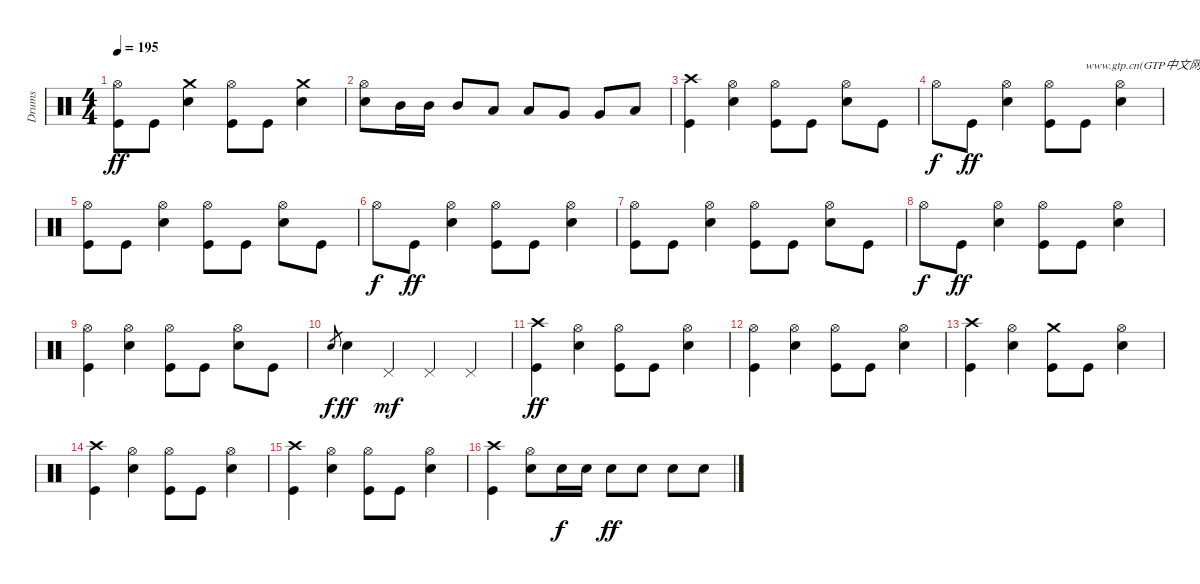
\track ("Drums" "Drums") {instrument percussion}
\staff {score}
\articulation defaults
\ts (4 4)
\tempo 195
\clef neutral
\ks c
("Hi-Hat (open)" "Kick (hit)").8{dy ff} "Kick (hit)".8 ("Crash medium (hit)" "Snare (hit) 2").4 ("Hi-Hat (open)" "Kick (hit)").8 "Kick (hit)".8 ("Crash medium (hit)" "Snare (hit) 2").4 |
("Hi-Hat (open)" "Snare (hit) 2").8 "Mid Tom (hit)".16 "Mid Tom (hit)".16 "Mid Tom (hit)".8 "Low Tom (hit)".8 "Low Tom (hit)".8 "Very Low Tom (hit)".8 "Very Low Tom (hit)".8 "Low Floor Tom (hit)".8 |
("Crash high (hit)" "Kick (hit)").4 ("Hi-Hat (open)" "Snare (hit) 2").4 ("Hi-Hat (open)" "Kick (hit)").8 "Kick (hit)".8 ("Hi-Hat (open)" "Snare (hit) 2").8 "Kick (hit)".8 |
"Hi-Hat (open)".8{dy f} "Kick (hit)".8{dy ff} ("Hi-Hat (open)" "Snare (hit) 2").4 ("Hi-Hat (open)" "Kick (hit)").8 "Kick (hit)".8{txt "www.gtp.cn(GTP中文网)您提供优秀的GTP"} ("Hi-Hat (open)" "Snare (hit) 2").4 |
("Hi-Hat (open)" "Kick (hit)").8 "Kick (hit)".8 ("Hi-Hat (open)" "Snare (hit) 2").4 ("Hi-Hat (open)" "Kick (hit)").8 "Kick (hit)".8 ("Hi-Hat (open)" "Snare (hit) 2").8 "Kick (hit)".8 |
"Hi-Hat (open)".8{dy f} "Kick (hit)".8{dy ff} ("Hi-Hat (open)" "Snare (hit) 2").4 ("Hi-Hat (open)" "Kick (hit)").8 "Kick (hit)".8 ("Hi-Hat (open)" "Snare (hit) 2").4 |
("Hi-Hat (open)" "Kick (hit)").8 "Kick (hit)".8 ("Hi-Hat (open)" "Snare (hit) 2").4 ("Hi-Hat (open)" "Kick (hit)").8 "Kick (hit)".8 ("Hi-Hat (open)" "Snare (hit) 2").8 "Kick (hit)".8 |
"Hi-Hat (open)".8{dy f} "Kick (hit)".8{dy ff} ("Hi-Hat (open)" "Snare (hit) 2").4 ("Hi-Hat (open)" "Kick (hit)").8 "Kick (hit)".8 ("Hi-Hat (open)" "Snare (hit) 2").4 |
("Hi-Hat (open)" "Kick (hit)").4 ("Hi-Hat (open)" "Snare (hit) 2").4 ("Hi-Hat (open)" "Kick (hit)").8 "Kick (hit)".8 ("Hi-Hat (open)" "Snare (hit) 2").8 "Kick (hit)".8 |
"Snare (hit) 2".8{gr dy f} "Snare (hit) 2".4{dy ff} "Pedal Hi-Hat (hit)".4{dy mf} "Pedal Hi-Hat (hit)".4 "Pedal Hi-Hat (hit)".4 |
("Crash high (hit)" "Kick (hit)").4{dy ff} ("Hi-Hat (open)" "Snare (hit) 2").4 ("Hi-Hat (open)" "Kick (hit)").8 "Kick (hit)".8 ("Hi-Hat (open)" "Snare (hit) 2").4 |
("Hi-Hat (open)" "Kick (hit)").4 ("Hi-Hat (open)" "Snare (hit) 2").4 ("Hi-Hat (open)" "Kick (hit)").8 "Kick (hit)".8 ("Hi-Hat (open)" "Snare (hit) 2").4 |
("Crash high (hit)" "Kick (hit)").4 ("Hi-Hat (open)" "Snare (hit) 2").4 ("Crash medium (hit)" "Kick (hit)").8 "Kick (hit)".8 ("Hi-Hat (open)" "Snare (hit) 2").4 |
("Crash high (hit)" "Kick (hit)").4 ("Hi-Hat (open)" "Snare (hit) 2").4 ("Hi-Hat (open)" "Kick (hit)").8 "Kick (hit)".8 ("Hi-Hat (open)" "Snare (hit) 2").4 |
("Crash high (hit)" "Kick (hit)").4 ("Hi-Hat (open)" "Snare (hit) 2").4 ("Hi-Hat (open)" "Kick (hit)").8 "Kick (hit)".8 ("Hi-Hat (open)" "Snare (hit) 2").4 |
("Crash high (hit)" "Kick (hit)").4 ("Hi-Hat (open)" "Snare (hit) 2").8 "Snare (hit) 2".16{dy f} "Snare (hit) 2".16 "Snare (hit) 2".8{dy ff} "Snare (hit) 2".8 "Snare (hit) 2".8 "Snare (hit) 2".8
